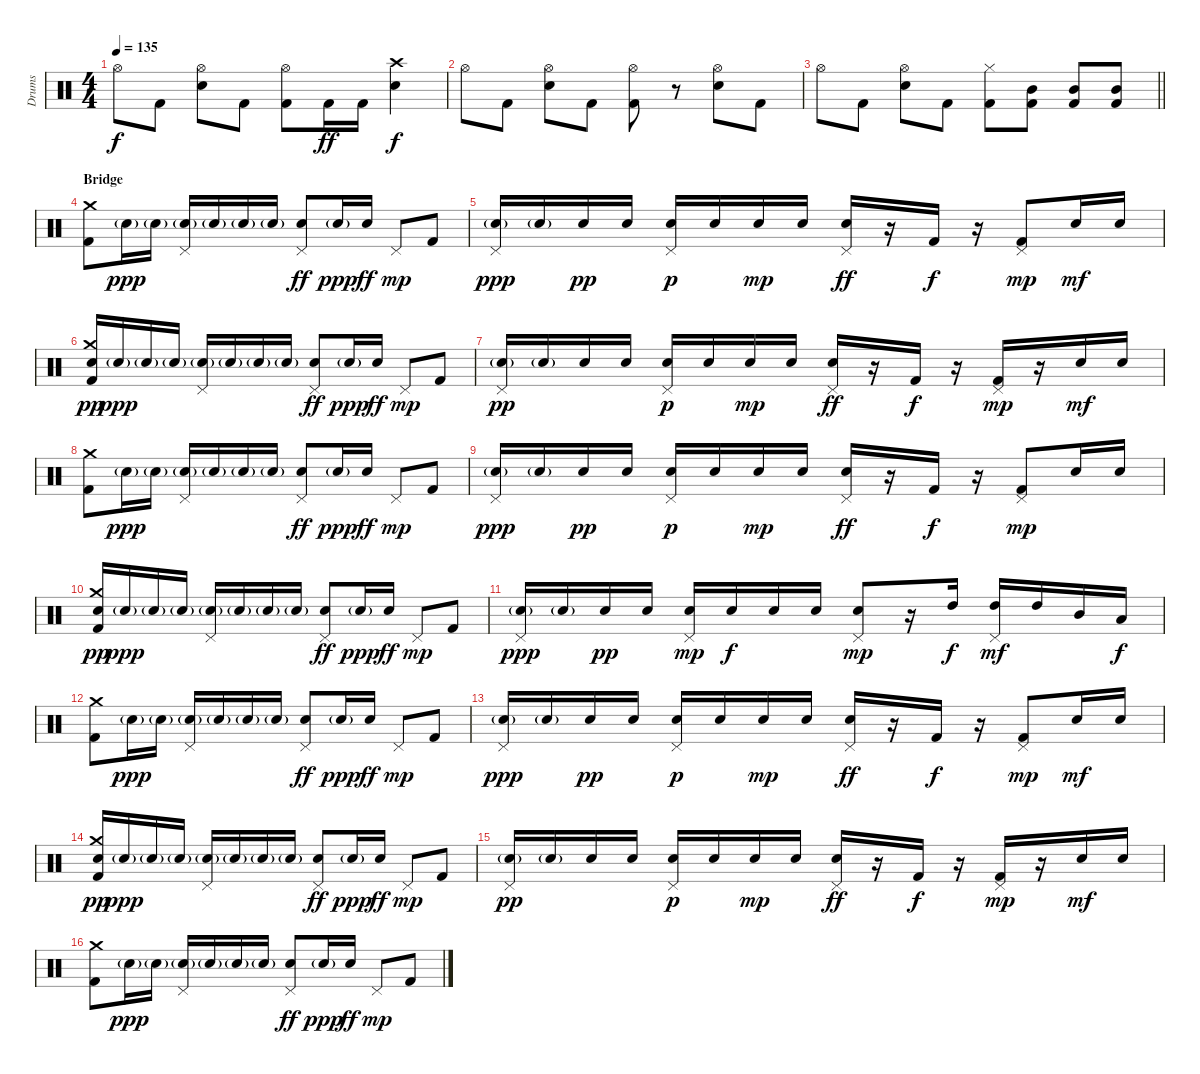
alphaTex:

\track ("Drums" "Drums") {instrument percussion}
\staff {score}
\articulation defaults
\ts (4 4)
\tempo 135
\clef neutral
\ks c "Hi-Hat (open)".8{dy f} "Kick (hit) 2".8
("Hi-Hat (open)" "Electric Snare (hit)").8 "Kick (hit) 2".8 ("Hi-Hat (open)" "Kick (hit) 2").8 "Kick (hit) 2".16{dy ff} "Kick (hit) 2".16 ("Crash high (hit)" "Electric Snare (hit)").4{dy f} |
"Hi-Hat (open)".8 "Kick (hit) 2".8 ("Hi-Hat (open)" "Electric Snare (hit)").8 "Kick (hit) 2".8 ("Hi-Hat (open)" "Kick (hit) 2").8 r.8 ("Hi-Hat (open)" "Electric Snare (hit)").8 "Kick (hit) 2".8 |
\barLineRight lightlight "Hi-Hat (open)".8 "Kick (hit) 2".8
("Hi-Hat (open)" "Electric Snare (hit)").8 "Kick (hit) 2".8 ("Hi-Hat (closed)" "Kick (hit) 2").8 ("Mid Tom (hit)" "Kick (hit) 2").8 ("Mid Tom (hit)" "Kick (hit) 2").8 ("Mid Tom (hit)" "Kick (hit) 2").8 |
\section ("" "Bridge")
("Crash medium (hit)" "Kick (hit) 2").8 "Snare (hit) 2"{g}.16{dy ppp} "Snare (hit) 2"{g}.16 ("Pedal Hi-Hat (hit)" "Snare (hit) 2"{g}).16 "Snare (hit) 2"{g}.16 "Snare (hit) 2"{g}.16 "Snare (hit) 2"{g}.16 ("Pedal Hi-Hat (hit)" "Snare (hit) 2").8{dy ff} "Snare (hit) 2"{g}.16{dy ppp} "Snare (hit) 2".16{dy ff} "Pedal Hi-Hat (hit)".8{dy mp} "Kick (hit) 2".8 |
("Pedal Hi-Hat (hit)" "Snare (hit) 2"{g}).16{dy ppp} "Snare (hit) 2"{g}.16 "Snare (hit) 2".16{dy pp} "Snare (hit) 2".16 ("Pedal Hi-Hat (hit)" "Snare (hit) 2").16{dy p} "Snare (hit) 2".16 "Snare (hit) 2".16{dy mp} "Snare (hit) 2".16 ("Pedal Hi-Hat (hit)" "Snare (hit) 2").16{dy ff} r.16 "Kick (hit) 2".16{dy f} r.16 ("Pedal Hi-Hat (hit)" "Kick (hit) 2").8{dy mp} "Snare (hit) 2".16{dy mf} "Snare (hit) 2".16 |
("Crash medium (hit)" "Snare (hit) 2" "Kick (hit) 2").16{dy pp} "Snare (hit) 2"{g}.16{dy ppp} "Snare (hit) 2"{g}.16 "Snare (hit) 2"{g}.16 ("Pedal Hi-Hat (hit)" "Snare (hit) 2"{g}).16 "Snare (hit) 2"{g}.16 "Snare (hit) 2"{g}.16 "Snare (hit) 2"{g}.16 ("Pedal Hi-Hat (hit)" "Snare (hit) 2").8{dy ff} "Snare (hit) 2"{g}.16{dy ppp} "Snare (hit) 2".16{dy ff} "Pedal Hi-Hat (hit)".8{dy mp} "Kick (hit) 2".8 |
("Pedal Hi-Hat (hit)" "Snare (hit) 2"{g}).16{dy pp} "Snare (hit) 2"{g}.16 "Snare (hit) 2".16 "Snare (hit) 2".16 ("Pedal Hi-Hat (hit)" "Snare (hit) 2").16{dy p} "Snare (hit) 2".16 "Snare (hit) 2".16{dy mp} "Snare (hit) 2".16 ("Pedal Hi-Hat (hit)" "Snare (hit) 2").16{dy ff} r.16 "Kick (hit) 2".16{dy f} r.16 ("Pedal Hi-Hat (hit)" "Kick (hit) 2").16{dy mp} r.16 "Snare (hit) 2".16{dy mf} "Snare (hit) 2".16 |
("Crash medium (hit)" "Kick (hit) 2").8 "Snare (hit) 2"{g}.16{dy ppp} "Snare (hit) 2"{g}.16 ("Pedal Hi-Hat (hit)" "Snare (hit) 2"{g}).16 "Snare (hit) 2"{g}.16 "Snare (hit) 2"{g}.16 "Snare (hit) 2"{g}.16 ("Pedal Hi-Hat (hit)" "Snare (hit) 2").8{dy ff} "Snare (hit) 2"{g}.16{dy ppp} "Snare (hit) 2".16{dy ff} "Pedal Hi-Hat (hit)".8{dy mp} "Kick (hit) 2".8 |
("Pedal Hi-Hat (hit)" "Snare (hit) 2"{g}).16{dy ppp} "Snare (hit) 2"{g}.16 "Snare (hit) 2".16{dy pp} "Snare (hit) 2".16 ("Pedal Hi-Hat (hit)" "Snare (hit) 2").16{dy p} "Snare (hit) 2".16 "Snare (hit) 2".16{dy mp} "Snare (hit) 2".16 ("Pedal Hi-Hat (hit)" "Snare (hit) 2").16{dy ff} r.16 "Kick (hit) 2".16{dy f} r.16 ("Pedal Hi-Hat (hit)" "Kick (hit) 2").8{dy mp} "Snare (hit) 2".16 "Snare (hit) 2".16 |
("Crash medium (hit)" "Snare (hit) 2" "Kick (hit) 2").16{dy pp} "Snare (hit) 2"{g}.16{dy ppp} "Snare (hit) 2"{g}.16 "Snare (hit) 2"{g}.16 ("Pedal Hi-Hat (hit)" "Snare (hit) 2"{g}).16 "Snare (hit) 2"{g}.16 "Snare (hit) 2"{g}.16 "Snare (hit) 2"{g}.16 ("Pedal Hi-Hat (hit)" "Snare (hit) 2").8{dy ff} "Snare (hit) 2"{g}.16{dy ppp} "Snare (hit) 2".16{dy ff} "Pedal Hi-Hat (hit)".8{dy mp} "Kick (hit) 2".8 |
("Pedal Hi-Hat (hit)" "Snare (hit) 2"{g}).16{dy ppp} "Snare (hit) 2"{g}.16 "Snare (hit) 2".16{dy pp} "Snare (hit) 2".16 ("Pedal Hi-Hat (hit)" "Snare (hit) 2").16{dy mp} "Snare (hit) 2".16{dy f} "Snare (hit) 2".16 "Snare (hit) 2".16 ("Pedal Hi-Hat (hit)" "Snare (hit) 2").8{dy mp} r.16 "High Tom (hit)".16{dy f} ("Pedal Hi-Hat (hit)" "High Tom (hit)").16{dy mf} "High Tom (hit)".16 "Mid Tom (hit)".16 "Low Tom (hit)".16{dy f} |
("Crash medium (hit)" "Kick (hit) 2").8 "Snare (hit) 2"{g}.16{dy ppp} "Snare (hit) 2"{g}.16 ("Pedal Hi-Hat (hit)" "Snare (hit) 2"{g}).16 "Snare (hit) 2"{g}.16 "Snare (hit) 2"{g}.16 "Snare (hit) 2"{g}.16 ("Pedal Hi-Hat (hit)" "Snare (hit) 2").8{dy ff} "Snare (hit) 2"{g}.16{dy ppp} "Snare (hit) 2".16{dy ff} "Pedal Hi-Hat (hit)".8{dy mp} "Kick (hit) 2".8 |
("Pedal Hi-Hat (hit)" "Snare (hit) 2"{g}).16{dy ppp} "Snare (hit) 2"{g}.16 "Snare (hit) 2".16{dy pp} "Snare (hit) 2".16 ("Pedal Hi-Hat (hit)" "Snare (hit) 2").16{dy p} "Snare (hit) 2".16 "Snare (hit) 2".16{dy mp} "Snare (hit) 2".16 ("Pedal Hi-Hat (hit)" "Snare (hit) 2").16{dy ff} r.16 "Kick (hit) 2".16{dy f} r.16 ("Pedal Hi-Hat (hit)" "Kick (hit) 2").8{dy mp} "Snare (hit) 2".16{dy mf} "Snare (hit) 2".16 |
("Crash medium (hit)" "Snare (hit) 2" "Kick (hit) 2").16{dy pp} "Snare (hit) 2"{g}.16{dy ppp} "Snare (hit) 2"{g}.16 "Snare (hit) 2"{g}.16 ("Pedal Hi-Hat (hit)" "Snare (hit) 2"{g}).16 "Snare (hit) 2"{g}.16 "Snare (hit) 2"{g}.16 "Snare (hit) 2"{g}.16 ("Pedal Hi-Hat (hit)" "Snare (hit) 2").8{dy ff} "Snare (hit) 2"{g}.16{dy ppp} "Snare (hit) 2".16{dy ff} "Pedal Hi-Hat (hit)".8{dy mp} "Kick (hit) 2".8 |
("Pedal Hi-Hat (hit)" "Snare (hit) 2"{g}).16{dy pp} "Snare (hit) 2"{g}.16 "Snare (hit) 2".16 "Snare (hit) 2".16 ("Pedal Hi-Hat (hit)" "Snare (hit) 2").16{dy p} "Snare (hit) 2".16 "Snare (hit) 2".16{dy mp} "Snare (hit) 2".16 ("Pedal Hi-Hat (hit)" "Snare (hit) 2").16{dy ff} r.16 "Kick (hit) 2".16{dy f} r.16 ("Pedal Hi-Hat (hit)" "Kick (hit) 2").16{dy mp} r.16 "Snare (hit) 2".16{dy mf} "Snare (hit) 2".16 |
("Crash medium (hit)" "Kick (hit) 2").8 "Snare (hit) 2"{g}.16{dy ppp} "Snare (hit) 2"{g}.16 ("Pedal Hi-Hat (hit)" "Snare (hit) 2"{g}).16 "Snare (hit) 2"{g}.16 "Snare (hit) 2"{g}.16 "Snare (hit) 2"{g}.16 ("Pedal Hi-Hat (hit)" "Snare (hit) 2").8{dy ff} "Snare (hit) 2"{g}.16{dy ppp} "Snare (hit) 2".16{dy ff} "Pedal Hi-Hat (hit)".8{dy mp} "Kick (hit) 2".8
